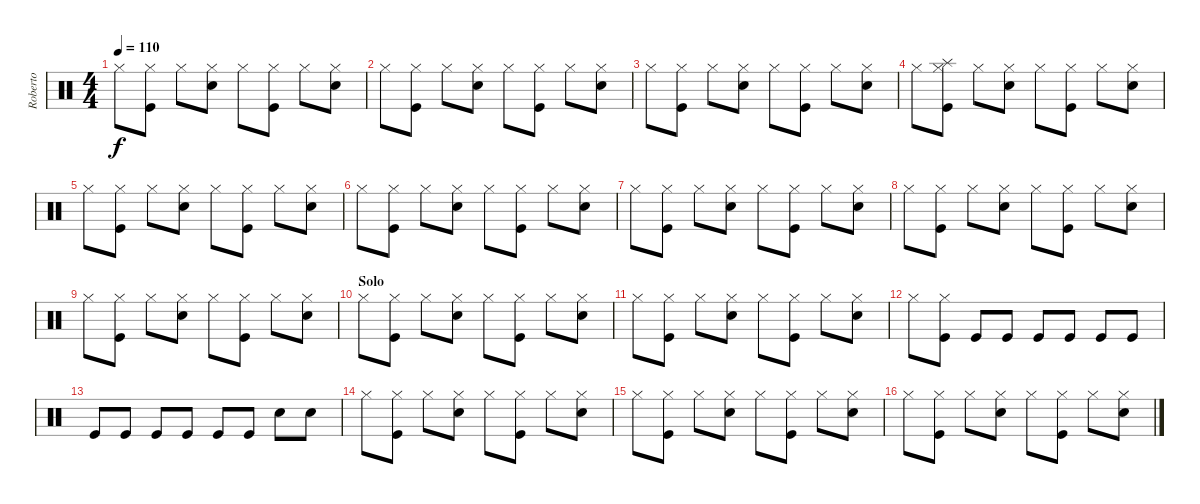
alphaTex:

\track ("Roberto" "Roberto") {instrument percussion}
\staff {score}
\articulation defaults
\ts (4 4)
\tempo 110
\clef neutral
\ks c "Hi-Hat (closed)".8{dy f volume 11}
("Hi-Hat (closed)" "Kick (hit)").8 "Hi-Hat (closed)".8 ("Hi-Hat (closed)" "Snare (hit) 2").8 "Hi-Hat (closed)".8 ("Hi-Hat (closed)" "Kick (hit)").8 "Hi-Hat (closed)".8 ("Hi-Hat (closed)" "Snare (hit) 2").8 |
"Hi-Hat (closed)".8{volume 11} ("Hi-Hat (closed)" "Kick (hit)").8 "Hi-Hat (closed)".8 ("Hi-Hat (closed)" "Snare (hit) 2").8 "Hi-Hat (closed)".8 ("Hi-Hat (closed)" "Kick (hit)").8 "Hi-Hat (closed)".8 ("Hi-Hat (closed)" "Snare (hit) 2").8 |
"Hi-Hat (closed)".8{volume 11} ("Hi-Hat (closed)" "Kick (hit)").8 "Hi-Hat (closed)".8 ("Hi-Hat (closed)" "Snare (hit) 2").8 "Hi-Hat (closed)".8 ("Hi-Hat (closed)" "Kick (hit)").8 "Hi-Hat (closed)".8 ("Hi-Hat (closed)" "Snare (hit) 2").8 |
"Hi-Hat (closed)".8{volume 11} ("Splash (hit)" "Hi-Hat (closed)" "Kick (hit)").8 "Hi-Hat (closed)".8 ("Hi-Hat (closed)" "Snare (hit) 2").8 "Hi-Hat (closed)".8 ("Hi-Hat (closed)" "Kick (hit)").8 "Hi-Hat (closed)".8 ("Hi-Hat (closed)" "Snare (hit) 2").8 |
"Hi-Hat (closed)".8{volume 11} ("Hi-Hat (closed)" "Kick (hit)").8 "Hi-Hat (closed)".8 ("Hi-Hat (closed)" "Snare (hit) 2").8 "Hi-Hat (closed)".8 ("Hi-Hat (closed)" "Kick (hit)").8 "Hi-Hat (closed)".8 ("Hi-Hat (closed)" "Snare (hit) 2").8 |
"Hi-Hat (closed)".8{volume 11} ("Hi-Hat (closed)" "Kick (hit)").8 "Hi-Hat (closed)".8 ("Hi-Hat (closed)" "Snare (hit) 2").8 "Hi-Hat (closed)".8 ("Hi-Hat (closed)" "Kick (hit)").8 "Hi-Hat (closed)".8 ("Hi-Hat (closed)" "Snare (hit) 2").8 |
"Hi-Hat (closed)".8{volume 11} ("Hi-Hat (closed)" "Kick (hit)").8 "Hi-Hat (closed)".8 ("Hi-Hat (closed)" "Snare (hit) 2").8 "Hi-Hat (closed)".8 ("Hi-Hat (closed)" "Kick (hit)").8 "Hi-Hat (closed)".8 ("Hi-Hat (closed)" "Snare (hit) 2").8 |
"Hi-Hat (closed)".8{volume 11} ("Hi-Hat (closed)" "Kick (hit)").8 "Hi-Hat (closed)".8 ("Hi-Hat (closed)" "Snare (hit) 2").8 "Hi-Hat (closed)".8 ("Hi-Hat (closed)" "Kick (hit)").8 "Hi-Hat (closed)".8 ("Hi-Hat (closed)" "Snare (hit) 2").8 |
"Hi-Hat (closed)".8{volume 11} ("Hi-Hat (closed)" "Kick (hit)").8 "Hi-Hat (closed)".8 ("Hi-Hat (closed)" "Snare (hit) 2").8 "Hi-Hat (closed)".8 ("Hi-Hat (closed)" "Kick (hit)").8 "Hi-Hat (closed)".8 ("Hi-Hat (closed)" "Snare (hit) 2").8 |
\section ("" "Solo")
"Hi-Hat (closed)".8{volume 11} ("Hi-Hat (closed)" "Kick (hit)").8 "Hi-Hat (closed)".8 ("Hi-Hat (closed)" "Snare (hit) 2").8 "Hi-Hat (closed)".8 ("Hi-Hat (closed)" "Kick (hit)").8 "Hi-Hat (closed)".8 ("Hi-Hat (closed)" "Snare (hit) 2").8 |
"Hi-Hat (closed)".8{volume 11} ("Hi-Hat (closed)" "Kick (hit)").8 "Hi-Hat (closed)".8 ("Hi-Hat (closed)" "Snare (hit) 2").8 "Hi-Hat (closed)".8 ("Hi-Hat (closed)" "Kick (hit)").8 "Hi-Hat (closed)".8 ("Hi-Hat (closed)" "Snare (hit) 2").8 |
"Hi-Hat (closed)".8{volume 11} ("Hi-Hat (closed)" "Kick (hit)").8 "Kick (hit)".8 "Kick (hit)".8 "Kick (hit)".8 "Kick (hit)".8 "Kick (hit)".8 "Kick (hit)".8 |
"Kick (hit)".8{volume 11} "Kick (hit)".8 "Kick (hit)".8 "Kick (hit)".8 "Kick (hit)".8 "Kick (hit)".8 "Snare (hit) 2".8 "Snare (hit) 2".8 |
"Hi-Hat (closed)".8{volume 11} ("Hi-Hat (closed)" "Kick (hit)").8 "Hi-Hat (closed)".8 ("Hi-Hat (closed)" "Snare (hit) 2").8 "Hi-Hat (closed)".8 ("Hi-Hat (closed)" "Kick (hit)").8 "Hi-Hat (closed)".8 ("Hi-Hat (closed)" "Snare (hit) 2").8 |
"Hi-Hat (closed)".8{volume 11} ("Hi-Hat (closed)" "Kick (hit)").8 "Hi-Hat (closed)".8 ("Hi-Hat (closed)" "Snare (hit) 2").8 "Hi-Hat (closed)".8 ("Hi-Hat (closed)" "Kick (hit)").8 "Hi-Hat (closed)".8 ("Hi-Hat (closed)" "Snare (hit) 2").8 |
"Hi-Hat (closed)".8{volume 11} ("Hi-Hat (closed)" "Kick (hit)").8 "Hi-Hat (closed)".8 ("Hi-Hat (closed)" "Snare (hit) 2").8 "Hi-Hat (closed)".8 ("Hi-Hat (closed)" "Kick (hit)").8 "Hi-Hat (closed)".8 ("Hi-Hat (closed)" "Snare (hit) 2").8
